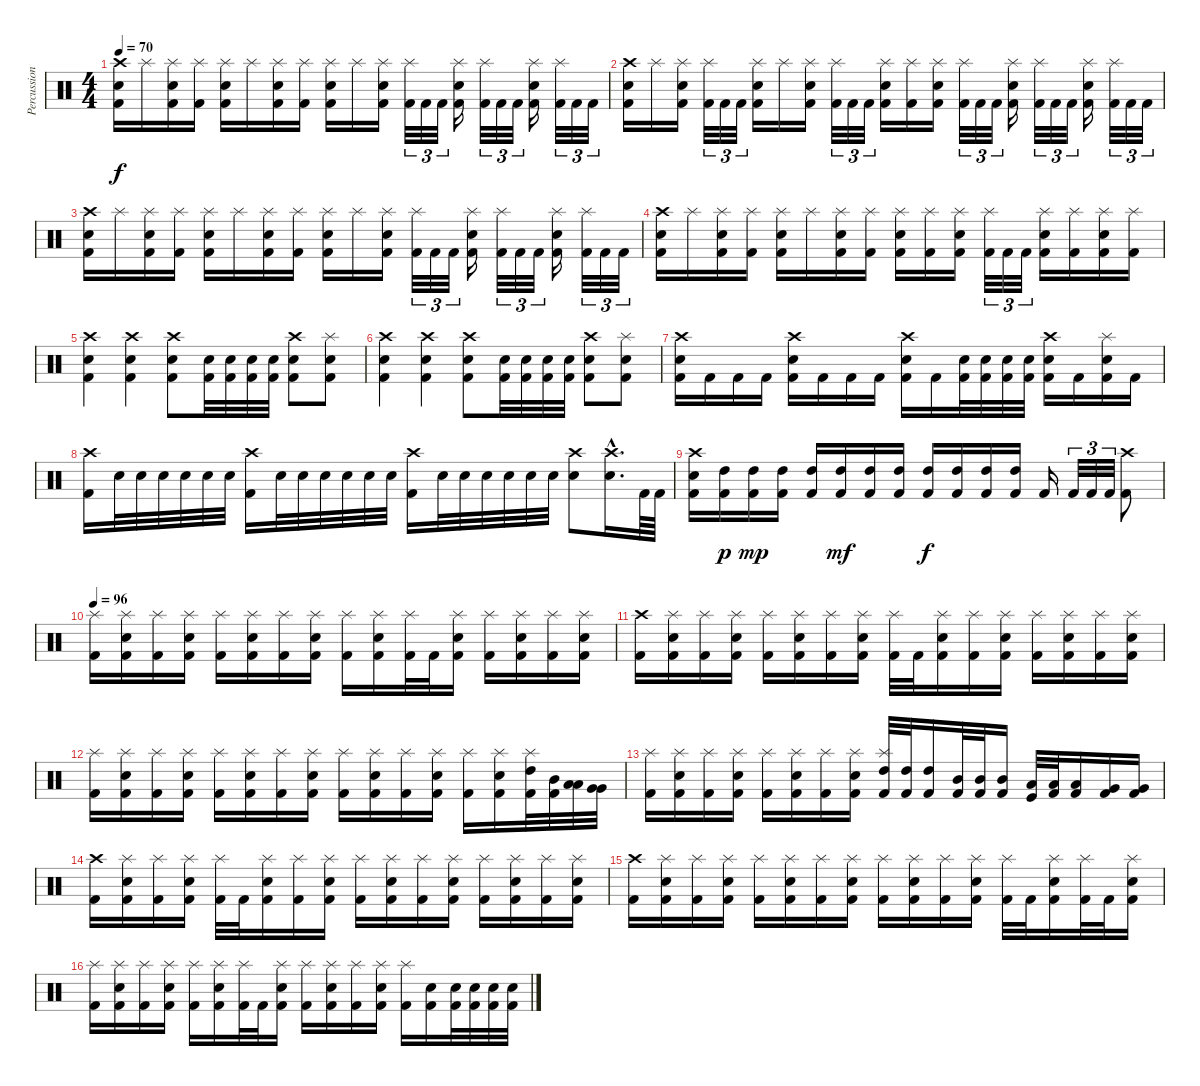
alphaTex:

\track ("Percussion" "Percussion") {instrument percussion}
\staff {score}
\articulation defaults
\ts (4 4)
\tempo 70
\clef neutral
\ks c
("Crash high (hit)" "Snare (hit) 2" "Kick (hit) 2").16{dy f} "Splash (hit)".16 ("Splash (hit)" "Snare (hit) 2" "Kick (hit) 2").16 ("Splash (hit)" "Kick (hit) 2").16 ("Splash (hit)" "Snare (hit) 2" "Kick (hit) 2").16 "Splash (hit)".16 ("Splash (hit)" "Snare (hit) 2" "Kick (hit) 2").16 ("Splash (hit)" "Kick (hit) 2").16 ("Splash (hit)" "Snare (hit) 2" "Kick (hit) 2").16 "Splash (hit)".16 ("Splash (hit)" "Snare (hit) 2" "Kick (hit) 2").16 ("Splash (hit)" "Kick (hit) 2").32{tu (3 2)} "Kick (hit) 2".32{tu (3 2)} "Kick (hit) 2".32{tu (3 2)} ("Splash (hit)" "Snare (hit) 2" "Kick (hit) 2").16 ("Splash (hit)" "Kick (hit) 2").32{tu (3 2)} "Kick (hit) 2".32{tu (3 2)} "Kick (hit) 2".32{tu (3 2)} ("Splash (hit)" "Snare (hit) 2" "Kick (hit) 2").16 ("Splash (hit)" "Kick (hit) 2").32{tu (3 2)} "Kick (hit) 2".32{tu (3 2)} "Kick (hit) 2".32{tu (3 2)} |
("Crash high (hit)" "Snare (hit) 2" "Kick (hit) 2").16 "Splash (hit)".16 ("Splash (hit)" "Snare (hit) 2" "Kick (hit) 2").16 ("Splash (hit)" "Kick (hit) 2").32{tu (3 2)} "Kick (hit) 2".32{tu (3 2)} "Kick (hit) 2".32{tu (3 2)} ("Splash (hit)" "Snare (hit) 2" "Kick (hit) 2").16 "Splash (hit)".16 ("Splash (hit)" "Snare (hit) 2" "Kick (hit) 2").16 ("Splash (hit)" "Kick (hit) 2").32{tu (3 2)} "Kick (hit) 2".32{tu (3 2)} "Kick (hit) 2".32{tu (3 2)} ("Splash (hit)" "Snare (hit) 2" "Kick (hit) 2").16 ("Splash (hit)" "Kick (hit) 2").16 ("Splash (hit)" "Snare (hit) 2" "Kick (hit) 2").16 ("Splash (hit)" "Kick (hit) 2").32{tu (3 2)} "Kick (hit) 2".32{tu (3 2)} "Kick (hit) 2".32{tu (3 2)} ("Splash (hit)" "Snare (hit) 2" "Kick (hit) 2").16 ("Splash (hit)" "Kick (hit) 2").32{tu (3 2)} "Kick (hit) 2".32{tu (3 2)} "Kick (hit) 2".32{tu (3 2)} ("Splash (hit)" "Snare (hit) 2" "Kick (hit) 2").16 ("Splash (hit)" "Kick (hit) 2").32{tu (3 2)} "Kick (hit) 2".32{tu (3 2)} "Kick (hit) 2".32{tu (3 2)} |
("Crash high (hit)" "Snare (hit) 2" "Kick (hit) 2").16 "Splash (hit)".16 ("Splash (hit)" "Snare (hit) 2" "Kick (hit) 2").16 ("Splash (hit)" "Kick (hit) 2").16 ("Splash (hit)" "Snare (hit) 2" "Kick (hit) 2").16 "Splash (hit)".16 ("Splash (hit)" "Snare (hit) 2" "Kick (hit) 2").16 ("Splash (hit)" "Kick (hit) 2").16 ("Splash (hit)" "Snare (hit) 2" "Kick (hit) 2").16 "Splash (hit)".16 ("Splash (hit)" "Snare (hit) 2" "Kick (hit) 2").16 ("Splash (hit)" "Kick (hit) 2").32{tu (3 2)} "Kick (hit) 2".32{tu (3 2)} "Kick (hit) 2".32{tu (3 2)} ("Splash (hit)" "Snare (hit) 2" "Kick (hit) 2").16 ("Splash (hit)" "Kick (hit) 2").32{tu (3 2)} "Kick (hit) 2".32{tu (3 2)} "Kick (hit) 2".32{tu (3 2)} ("Splash (hit)" "Snare (hit) 2" "Kick (hit) 2").16 ("Splash (hit)" "Kick (hit) 2").32{tu (3 2)} "Kick (hit) 2".32{tu (3 2)} "Kick (hit) 2".32{tu (3 2)} |
("Crash high (hit)" "Snare (hit) 2" "Kick (hit) 2").16 "Splash (hit)".16 ("Splash (hit)" "Snare (hit) 2" "Kick (hit) 2").16 ("Splash (hit)" "Kick (hit) 2").16 ("Splash (hit)" "Snare (hit) 2" "Kick (hit) 2").16 "Splash (hit)".16 ("Splash (hit)" "Snare (hit) 2" "Kick (hit) 2").16 ("Splash (hit)" "Kick (hit) 2").16 ("Splash (hit)" "Snare (hit) 2" "Kick (hit) 2").16 ("Splash (hit)" "Kick (hit) 2").16 ("Splash (hit)" "Snare (hit) 2" "Kick (hit) 2").16 ("Splash (hit)" "Kick (hit) 2").32{tu (3 2)} "Kick (hit) 2".32{tu (3 2)} "Kick (hit) 2".32{tu (3 2)} ("Splash (hit)" "Snare (hit) 2" "Kick (hit) 2").16 ("Splash (hit)" "Kick (hit) 2").16 ("Splash (hit)" "Snare (hit) 2" "Kick (hit) 2").16 ("Splash (hit)" "Kick (hit) 2").16 |
("Crash high (hit)" "Snare (hit) 2" "Kick (hit) 2").4 ("Crash high (hit)" "Snare (hit) 2" "Kick (hit) 2").4 ("Crash high (hit)" "Snare (hit) 2" "Kick (hit) 2").8 ("Kick (hit) 2" "Snare (hit) 2").32 ("Kick (hit) 2" "Snare (hit) 2").32 ("Kick (hit) 2" "Snare (hit) 2").32 ("Kick (hit) 2" "Snare (hit) 2").32 ("Crash high (hit)" "Kick (hit) 2" "Snare (hit) 2").8 ("Splash (hit)" "Kick (hit) 2" "Snare (hit) 2").8 |
("Crash high (hit)" "Snare (hit) 2" "Kick (hit) 2").4 ("Crash high (hit)" "Snare (hit) 2" "Kick (hit) 2").4 ("Crash high (hit)" "Snare (hit) 2" "Kick (hit) 2").8 ("Kick (hit) 2" "Snare (hit) 2").32 ("Kick (hit) 2" "Snare (hit) 2").32 ("Kick (hit) 2" "Snare (hit) 2").32 ("Kick (hit) 2" "Snare (hit) 2").32 ("Crash high (hit)" "Kick (hit) 2" "Snare (hit) 2").8 ("Splash (hit)" "Kick (hit) 2" "Snare (hit) 2").8 |
("Crash high (hit)" "Snare (hit) 2" "Kick (hit) 2").16 "Kick (hit) 2".16 "Kick (hit) 2".16 "Kick (hit) 2".16 ("Crash high (hit)" "Snare (hit) 2" "Kick (hit) 2").16 "Kick (hit) 2".16 "Kick (hit) 2".16 "Kick (hit) 2".16 ("Crash high (hit)" "Snare (hit) 2" "Kick (hit) 2").16 "Kick (hit) 2".16 ("Kick (hit) 2" "Snare (hit) 2").32 ("Kick (hit) 2" "Snare (hit) 2").32 ("Kick (hit) 2" "Snare (hit) 2").32 ("Kick (hit) 2" "Snare (hit) 2").32 ("Crash high (hit)" "Kick (hit) 2" "Snare (hit) 2").16 "Kick (hit) 2".16 ("Splash (hit)" "Kick (hit) 2" "Snare (hit) 2").16 "Kick (hit) 2".16 |
("Crash high (hit)" "Kick (hit) 2").16 "Snare (hit) 2".32 "Snare (hit) 2".32 "Snare (hit) 2".32 "Snare (hit) 2".32 "Snare (hit) 2".32 "Snare (hit) 2".32 ("Crash high (hit)" "Kick (hit) 2").16 "Snare (hit) 2".32 "Snare (hit) 2".32 "Snare (hit) 2".32 "Snare (hit) 2".32 "Snare (hit) 2".32 "Snare (hit) 2".32 ("Crash high (hit)" "Kick (hit) 2").16 "Snare (hit) 2".32 "Snare (hit) 2".32 "Snare (hit) 2".32 "Snare (hit) 2".32 "Snare (hit) 2".32 "Snare (hit) 2".32 ("Crash high (hit)" "Snare (hit) 2").8 ("Crash high (hit)"{hac} "Snare (hit) 2"{hac}).16{d} "Kick (hit) 2".64 "Kick (hit) 2".64 |
("Snare (hit) 2" "Crash high (hit)" "Kick (hit) 2").16 ("High Tom (hit)" "Kick (hit) 2").16{dy p} ("High Tom (hit)" "Kick (hit) 2").16{dy mp} ("High Tom (hit)" "Kick (hit) 2").16 ("High Tom (hit)" "Kick (hit) 2").16 ("High Tom (hit)" "Kick (hit) 2").16{dy mf} ("High Tom (hit)" "Kick (hit) 2").16 ("High Tom (hit)" "Kick (hit) 2").16 ("High Tom (hit)" "Kick (hit) 2").16{dy f} ("High Tom (hit)" "Kick (hit) 2").16 ("High Tom (hit)" "Kick (hit) 2").16 ("High Tom (hit)" "Kick (hit) 2").16 "Kick (hit) 2".16 "Kick (hit) 2".32{tu (3 2)} "Kick (hit) 2".32{tu (3 2)} "Kick (hit) 2".32{tu (3 2)} ("Crash high (hit)" "Kick (hit) 2").8 |
\tempo 96
("Splash (hit)" "Kick (hit) 2").16 ("Splash (hit)" "Snare (hit) 2" "Kick (hit) 2").16 ("Splash (hit)" "Kick (hit) 2").16 ("Splash (hit)" "Snare (hit) 2" "Kick (hit) 2").16 ("Splash (hit)" "Kick (hit) 2").16 ("Splash (hit)" "Snare (hit) 2" "Kick (hit) 2").16 ("Splash (hit)" "Kick (hit) 2").16 ("Splash (hit)" "Snare (hit) 2" "Kick (hit) 2").16 ("Splash (hit)" "Kick (hit) 2").16 ("Splash (hit)" "Snare (hit) 2" "Kick (hit) 2").16 ("Splash (hit)" "Kick (hit) 2").32 "Kick (hit) 2".32 ("Splash (hit)" "Snare (hit) 2" "Kick (hit) 2").16 ("Splash (hit)" "Kick (hit) 2").16 ("Splash (hit)" "Snare (hit) 2" "Kick (hit) 2").16 ("Splash (hit)" "Kick (hit) 2").16 ("Splash (hit)" "Snare (hit) 2" "Kick (hit) 2").16 |
("Crash high (hit)" "Kick (hit) 2").16 ("Splash (hit)" "Snare (hit) 2" "Kick (hit) 2").16 ("Splash (hit)" "Kick (hit) 2").16 ("Splash (hit)" "Snare (hit) 2" "Kick (hit) 2").16 ("Splash (hit)" "Kick (hit) 2").16 ("Splash (hit)" "Snare (hit) 2" "Kick (hit) 2").16 ("Splash (hit)" "Kick (hit) 2").16 ("Splash (hit)" "Snare (hit) 2" "Kick (hit) 2").16 ("Splash (hit)" "Kick (hit) 2").32 "Kick (hit) 2".32 ("Splash (hit)" "Snare (hit) 2" "Kick (hit) 2").16 ("Splash (hit)" "Kick (hit) 2").16 ("Splash (hit)" "Snare (hit) 2" "Kick (hit) 2").16 ("Splash (hit)" "Kick (hit) 2").16 ("Splash (hit)" "Snare (hit) 2" "Kick (hit) 2").16 ("Splash (hit)" "Kick (hit) 2").16 ("Splash (hit)" "Snare (hit) 2" "Kick (hit) 2").16 |
("Splash (hit)" "Kick (hit) 2").16 ("Splash (hit)" "Snare (hit) 2" "Kick (hit) 2").16 ("Splash (hit)" "Kick (hit) 2").16 ("Splash (hit)" "Snare (hit) 2" "Kick (hit) 2").16 ("Splash (hit)" "Kick (hit) 2").16 ("Splash (hit)" "Snare (hit) 2" "Kick (hit) 2").16 ("Splash (hit)" "Kick (hit) 2").16 ("Splash (hit)" "Snare (hit) 2" "Kick (hit) 2").16 ("Splash (hit)" "Kick (hit) 2").16 ("Splash (hit)" "Snare (hit) 2" "Kick (hit) 2").16 ("Splash (hit)" "Kick (hit) 2").16 ("Splash (hit)" "Snare (hit) 2" "Kick (hit) 2").16 ("Splash (hit)" "Kick (hit) 2").16 ("Splash (hit)" "Snare (hit) 2" "Kick (hit) 2").16 ("Splash (hit)" "High Tom (hit)" "Kick (hit) 2").32 ("Mid Tom (hit)" "Kick (hit) 2").32 ("Low Tom (hit)" "Low Tom (hit)").32 ("Very Low Tom (hit)" "Very Low Tom (hit)").32 |
("Splash (hit)" "Kick (hit) 2").16 ("Splash (hit)" "Snare (hit) 2" "Kick (hit) 2").16 ("Splash (hit)" "Kick (hit) 2").16 ("Splash (hit)" "Snare (hit) 2" "Kick (hit) 2").16 ("Splash (hit)" "Kick (hit) 2").16 ("Splash (hit)" "Snare (hit) 2" "Kick (hit) 2").16 ("Splash (hit)" "Kick (hit) 2").16 ("Splash (hit)" "Snare (hit) 2" "Kick (hit) 2").16 ("Splash (hit)" "High Tom (hit)" "Kick (hit) 2").32 ("High Tom (hit)" "Kick (hit) 2").32 ("High Tom (hit)" "Kick (hit) 2").16 ("Mid Tom (hit)" "Kick (hit) 2").32 ("Mid Tom (hit)" "Kick (hit) 2").32 ("Mid Tom (hit)" "Kick (hit) 2").16 ("Low Tom (hit)" "Kick (hit)").32 ("Low Tom (hit)" "Kick (hit) 2").32 ("Low Tom (hit)" "Kick (hit) 2").16 ("Very Low Tom (hit)" "Kick (hit) 2").16 ("Very Low Tom (hit)" "Kick (hit) 2").16 |
("Crash high (hit)" "Kick (hit) 2").16 ("Splash (hit)" "Snare (hit) 2" "Kick (hit) 2").16 ("Splash (hit)" "Kick (hit) 2").16 ("Splash (hit)" "Snare (hit) 2" "Kick (hit) 2").16 ("Splash (hit)" "Kick (hit) 2").32 "Kick (hit) 2".32 ("Splash (hit)" "Snare (hit) 2" "Kick (hit) 2").16 ("Splash (hit)" "Kick (hit) 2").16 ("Splash (hit)" "Snare (hit) 2" "Kick (hit) 2").16 ("Splash (hit)" "Kick (hit) 2").16 ("Splash (hit)" "Snare (hit) 2" "Kick (hit) 2").16 ("Splash (hit)" "Kick (hit) 2").16 ("Splash (hit)" "Snare (hit) 2" "Kick (hit) 2").16 ("Splash (hit)" "Kick (hit) 2").16 ("Splash (hit)" "Snare (hit) 2" "Kick (hit) 2").16 ("Splash (hit)" "Kick (hit) 2").16 ("Splash (hit)" "Snare (hit) 2" "Kick (hit) 2").16 |
("Crash high (hit)" "Kick (hit) 2").16 ("Splash (hit)" "Snare (hit) 2" "Kick (hit) 2").16 ("Splash (hit)" "Kick (hit) 2").16 ("Splash (hit)" "Snare (hit) 2" "Kick (hit) 2").16 ("Splash (hit)" "Kick (hit) 2").16 ("Splash (hit)" "Snare (hit) 2" "Kick (hit) 2").16 ("Splash (hit)" "Kick (hit) 2").16 ("Splash (hit)" "Snare (hit) 2" "Kick (hit) 2").16 ("Splash (hit)" "Kick (hit) 2").16 ("Splash (hit)" "Snare (hit) 2" "Kick (hit) 2").16 ("Splash (hit)" "Kick (hit) 2").16 ("Splash (hit)" "Snare (hit) 2" "Kick (hit) 2").16 ("Splash (hit)" "Kick (hit) 2").32 "Kick (hit) 2".32 ("Splash (hit)" "Snare (hit) 2" "Kick (hit) 2").16 ("Splash (hit)" "Kick (hit) 2").32 "Kick (hit) 2".32 ("Splash (hit)" "Snare (hit) 2" "Kick (hit) 2").16 |
("Splash (hit)" "Kick (hit) 2").16 ("Splash (hit)" "Snare (hit) 2" "Kick (hit) 2").16 ("Splash (hit)" "Kick (hit) 2").16 ("Splash (hit)" "Snare (hit) 2" "Kick (hit) 2").16 ("Splash (hit)" "Kick (hit) 2").16 ("Splash (hit)" "Snare (hit) 2" "Kick (hit) 2").16 ("Splash (hit)" "Kick (hit) 2").32 "Kick (hit) 2".32 ("Splash (hit)" "Snare (hit) 2" "Kick (hit) 2").16 ("Splash (hit)" "Kick (hit) 2").16 ("Splash (hit)" "Snare (hit) 2" "Kick (hit) 2").16 ("Splash (hit)" "Kick (hit) 2").16 ("Splash (hit)" "Snare (hit) 2" "Kick (hit) 2").16 ("Splash (hit)" "Kick (hit) 2").16 ("Snare (hit) 2" "Kick (hit) 2").16 ("Snare (hit) 2" "Kick (hit) 2").32 ("Snare (hit) 2" "Kick (hit) 2").32 ("Snare (hit) 2" "Kick (hit) 2").32 ("Snare (hit) 2" "Kick (hit) 2").32
